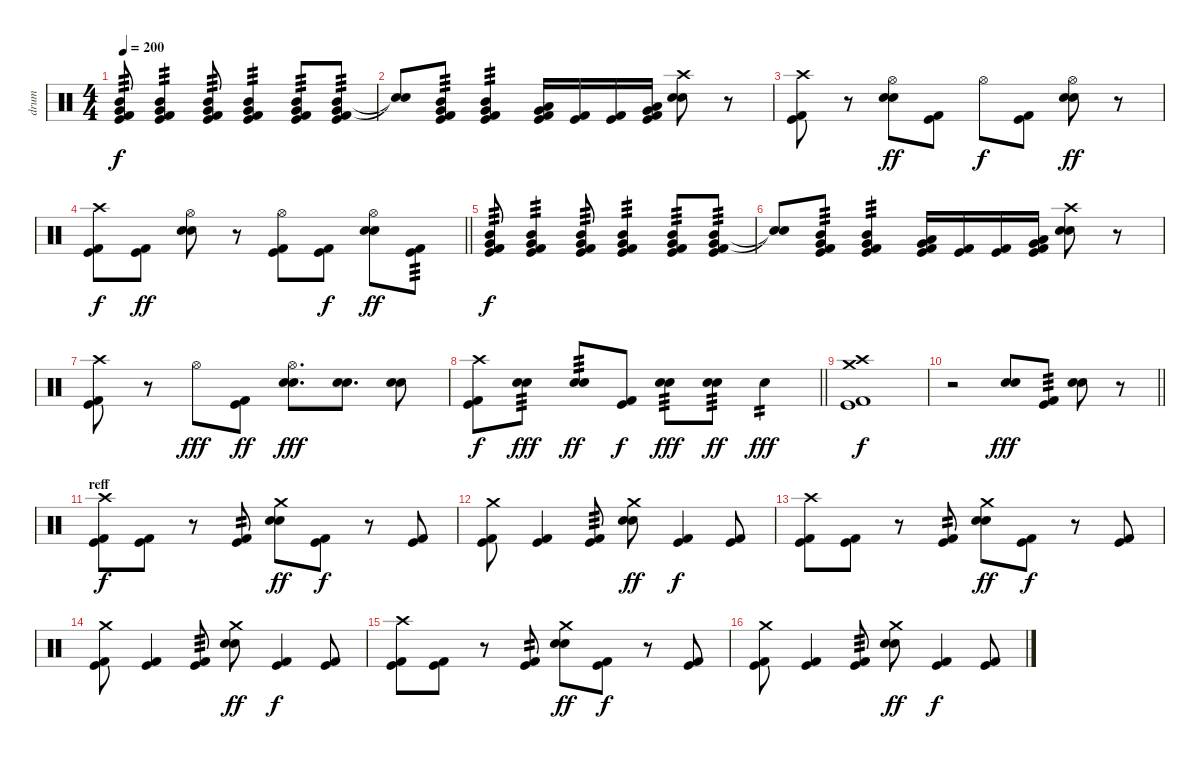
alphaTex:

\track ("drum" "drum") {instrument percussion}
\staff {score}
\articulation defaults
\ts (4 4)
\section ("" "")
\tempo 200
\clef neutral
\ks c
("Mid Tom (hit)" "Very Low Tom (hit)" "Kick (hit)" "Kick (hit) 2").8{tp 3 dy f} ("Mid Tom (hit)" "Very Low Tom (hit)" "Kick (hit)" "Kick (hit) 2").4{tp 3} ("Mid Tom (hit)" "Very Low Tom (hit)" "Kick (hit)" "Kick (hit) 2").8{tp 3} ("Mid Tom (hit)" "Very Low Tom (hit)" "Kick (hit)" "Kick (hit) 2").4{tp 3} ("Mid Tom (hit)" "Very Low Tom (hit)" "Kick (hit)" "Kick (hit) 2").8{tp 3} ("Mid Tom (hit)" "Very Low Tom (hit)" "Kick (hit)" "Kick (hit) 2").8{tp 3} |
("Snare (hit)"{t} "Snare (hit)"{t}).8 ("Mid Tom (hit)" "Very Low Tom (hit)" "Kick (hit)" "Kick (hit) 2").8{tp 3} ("Mid Tom (hit)" "Very Low Tom (hit)" "Kick (hit)" "Kick (hit) 2").4{tp 3} ("Low Tom (hit)" "Very Low Tom (hit)" "Kick (hit)" "Kick (hit) 2").16 ("Kick (hit)" "Kick (hit) 2").16 ("Kick (hit)" "Kick (hit) 2").16 ("Low Tom (hit)" "Very Low Tom (hit)" "Kick (hit)" "Kick (hit) 2").16 ("Crash high (hit)" "Electric Snare (hit)" "Electric Snare (hit)").8 r.8 |
("Crash high (hit)" "Kick (hit)" "Kick (hit) 2").8 r.8 ("Hi-Hat (open)" "Electric Snare (hit)" "Electric Snare (hit)").8{dy ff} ("Kick (hit)" "Kick (hit) 2").8 "Hi-Hat (open)".8{dy f} ("Kick (hit)" "Kick (hit) 2").8 ("Hi-Hat (open)" "Electric Snare (hit)" "Electric Snare (hit)").8{dy ff} r.8 |
\barLineRight lightlight
("Crash high (hit)" "Kick (hit)" "Kick (hit) 2").8{dy f} ("Kick (hit)" "Kick (hit) 2").8{dy ff} ("Hi-Hat (open)" "Electric Snare (hit)" "Electric Snare (hit)").8 r.8 ("Hi-Hat (open)" "Kick (hit)" "Kick (hit) 2").8 ("Kick (hit)" "Kick (hit) 2").8{dy f} ("Hi-Hat (open)" "Electric Snare (hit)" "Electric Snare (hit)").8{dy ff} ("Kick (hit)" "Kick (hit) 2").8{tp 3} |
("Mid Tom (hit)" "Very Low Tom (hit)" "Kick (hit)" "Kick (hit) 2").8{tp 3 dy f} ("Mid Tom (hit)" "Very Low Tom (hit)" "Kick (hit)" "Kick (hit) 2").4{tp 3} ("Mid Tom (hit)" "Very Low Tom (hit)" "Kick (hit)" "Kick (hit) 2").8{tp 3} ("Mid Tom (hit)" "Very Low Tom (hit)" "Kick (hit)" "Kick (hit) 2").4{tp 3} ("Mid Tom (hit)" "Very Low Tom (hit)" "Kick (hit)" "Kick (hit) 2").8{tp 3} ("Mid Tom (hit)" "Very Low Tom (hit)" "Kick (hit)" "Kick (hit) 2").8{tp 3} |
("Snare (hit)"{t} "Snare (hit)"{t}).8 ("Mid Tom (hit)" "Very Low Tom (hit)" "Kick (hit)" "Kick (hit) 2").8{tp 3} ("Mid Tom (hit)" "Very Low Tom (hit)" "Kick (hit)" "Kick (hit) 2").4{tp 3} ("Low Tom (hit)" "Very Low Tom (hit)" "Kick (hit)" "Kick (hit) 2").16 ("Kick (hit)" "Kick (hit) 2").16 ("Kick (hit)" "Kick (hit) 2").16 ("Low Tom (hit)" "Very Low Tom (hit)" "Kick (hit)" "Kick (hit) 2").16 ("Crash high (hit)" "Electric Snare (hit)" "Electric Snare (hit)").8 r.8 |
("Crash high (hit)" "Kick (hit)" "Kick (hit) 2").8 r.8 "Hi-Hat (open)".8{dy fff} ("Kick (hit)" "Kick (hit) 2").8{dy ff} ("Hi-Hat (open)" "Electric Snare (hit)" "Electric Snare (hit)").8{d dy fff} ("Electric Snare (hit)" "Electric Snare (hit)").8{d} ("Electric Snare (hit)" "Electric Snare (hit)").8 |
\barLineRight lightlight
("Crash high (hit)" "Kick (hit)" "Kick (hit) 2").8{dy f} ("Electric Snare (hit)" "Electric Snare (hit)").8{tp 3 dy fff} ("Electric Snare (hit)" "Electric Snare (hit)").8{tp 3 dy ff} ("Kick (hit)" "Kick (hit) 2").8{dy f} ("Electric Snare (hit)" "Electric Snare (hit)").8{tp 3 dy fff} ("Electric Snare (hit)" "Electric Snare (hit)").8{tp 3 dy ff} "Electric Snare (hit)".4{tp 2 dy fff} |
\section ("" "")
("Crash medium (hit)" "Crash high (hit)" "Kick (hit)" "Kick (hit) 2").1{dy f} |
\barLineRight lightlight
r.2 ("Electric Snare (hit)" "Electric Snare (hit)").8{dy fff} ("Kick (hit)" "Kick (hit) 2").8{tp 3} ("Electric Snare (hit)" "Electric Snare (hit)").8 r.8 |
\section ("" "reff")
("Crash high (hit)" "Kick (hit)" "Kick (hit) 2").8{dy f} ("Kick (hit)" "Kick (hit) 2").8 r.8 ("Kick (hit)" "Kick (hit) 2").8{tp 2} ("Crash medium (hit)" "Electric Snare (hit)" "Electric Snare (hit)").8{dy ff} ("Kick (hit)" "Kick (hit) 2").8{dy f} r.8 ("Kick (hit)" "Kick (hit) 2").8 |
("Crash medium (hit)" "Kick (hit)" "Kick (hit) 2").8 ("Kick (hit)" "Kick (hit) 2").4 ("Kick (hit)" "Kick (hit) 2").8{tp 3} ("Crash medium (hit)" "Electric Snare (hit)" "Electric Snare (hit)").8{dy ff} ("Kick (hit)" "Kick (hit) 2").4{dy f} ("Kick (hit)" "Kick (hit) 2").8 |
("Crash high (hit)" "Kick (hit)" "Kick (hit) 2").8 ("Kick (hit)" "Kick (hit) 2").8 r.8 ("Kick (hit)" "Kick (hit) 2").8{tp 2} ("Crash medium (hit)" "Electric Snare (hit)" "Electric Snare (hit)").8{dy ff} ("Kick (hit)" "Kick (hit) 2").8{dy f} r.8 ("Kick (hit)" "Kick (hit) 2").8 |
("Crash medium (hit)" "Kick (hit)" "Kick (hit) 2").8 ("Kick (hit)" "Kick (hit) 2").4 ("Kick (hit)" "Kick (hit) 2").8{tp 3} ("Crash medium (hit)" "Electric Snare (hit)" "Electric Snare (hit)").8{dy ff} ("Kick (hit)" "Kick (hit) 2").4{dy f} ("Kick (hit)" "Kick (hit) 2").8 |
("Crash high (hit)" "Kick (hit)" "Kick (hit) 2").8 ("Kick (hit)" "Kick (hit) 2").8 r.8 ("Kick (hit)" "Kick (hit) 2").8{tp 2} ("Crash medium (hit)" "Electric Snare (hit)" "Electric Snare (hit)").8{dy ff} ("Kick (hit)" "Kick (hit) 2").8{dy f} r.8 ("Kick (hit)" "Kick (hit) 2").8 |
("Crash medium (hit)" "Kick (hit)" "Kick (hit) 2").8 ("Kick (hit)" "Kick (hit) 2").4 ("Kick (hit)" "Kick (hit) 2").8{tp 3} ("Crash medium (hit)" "Electric Snare (hit)" "Electric Snare (hit)").8{dy ff} ("Kick (hit)" "Kick (hit) 2").4{dy f} ("Kick (hit)" "Kick (hit) 2").8
